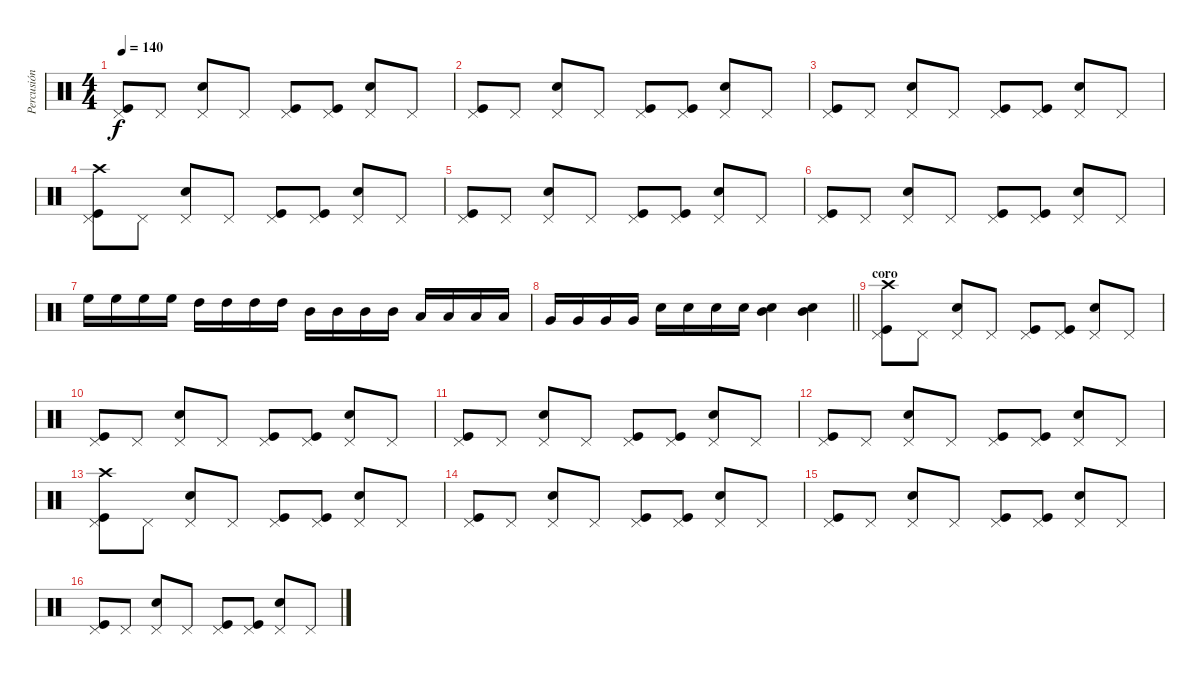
\track ("Percusión" "Percusión") {instrument percussion}
\staff {score}
\articulation defaults
\ts (4 4)
\tempo 140
\clef neutral
\ks c
("Kick (hit)" "Pedal Hi-Hat (hit)").8{dy f} "Pedal Hi-Hat (hit)".8 ("Snare (hit) 2" "Pedal Hi-Hat (hit)").8 "Pedal Hi-Hat (hit)".8 ("Kick (hit)" "Pedal Hi-Hat (hit)").8 ("Kick (hit)" "Pedal Hi-Hat (hit)").8 ("Snare (hit) 2" "Pedal Hi-Hat (hit)").8 "Pedal Hi-Hat (hit)".8 |
("Kick (hit)" "Pedal Hi-Hat (hit)").8 "Pedal Hi-Hat (hit)".8 ("Snare (hit) 2" "Pedal Hi-Hat (hit)").8 "Pedal Hi-Hat (hit)".8 ("Kick (hit)" "Pedal Hi-Hat (hit)").8 ("Kick (hit)" "Pedal Hi-Hat (hit)").8 ("Snare (hit) 2" "Pedal Hi-Hat (hit)").8 "Pedal Hi-Hat (hit)".8 |
("Kick (hit)" "Pedal Hi-Hat (hit)").8 "Pedal Hi-Hat (hit)".8 ("Snare (hit) 2" "Pedal Hi-Hat (hit)").8 "Pedal Hi-Hat (hit)".8 ("Kick (hit)" "Pedal Hi-Hat (hit)").8 ("Kick (hit)" "Pedal Hi-Hat (hit)").8 ("Snare (hit) 2" "Pedal Hi-Hat (hit)").8 "Pedal Hi-Hat (hit)".8 |
("Crash high (hit)" "Kick (hit)" "Pedal Hi-Hat (hit)").8 "Pedal Hi-Hat (hit)".8 ("Snare (hit) 2" "Pedal Hi-Hat (hit)").8 "Pedal Hi-Hat (hit)".8 ("Kick (hit)" "Pedal Hi-Hat (hit)").8 ("Kick (hit)" "Pedal Hi-Hat (hit)").8 ("Snare (hit) 2" "Pedal Hi-Hat (hit)").8 "Pedal Hi-Hat (hit)".8 |
("Kick (hit)" "Pedal Hi-Hat (hit)").8 "Pedal Hi-Hat (hit)".8 ("Snare (hit) 2" "Pedal Hi-Hat (hit)").8 "Pedal Hi-Hat (hit)".8 ("Kick (hit)" "Pedal Hi-Hat (hit)").8 ("Kick (hit)" "Pedal Hi-Hat (hit)").8 ("Snare (hit) 2" "Pedal Hi-Hat (hit)").8 "Pedal Hi-Hat (hit)".8 |
("Kick (hit)" "Pedal Hi-Hat (hit)").8 "Pedal Hi-Hat (hit)".8 ("Snare (hit) 2" "Pedal Hi-Hat (hit)").8 "Pedal Hi-Hat (hit)".8 ("Kick (hit)" "Pedal Hi-Hat (hit)").8 ("Kick (hit)" "Pedal Hi-Hat (hit)").8 ("Snare (hit) 2" "Pedal Hi-Hat (hit)").8 "Pedal Hi-Hat (hit)".8 |
"High Floor Tom (hit)".16 "High Floor Tom (hit)".16 "High Floor Tom (hit)".16 "High Floor Tom (hit)".16 "High Tom (hit)".16 "High Tom (hit)".16 "High Tom (hit)".16 "High Tom (hit)".16 "Mid Tom (hit)".16 "Mid Tom (hit)".16 "Mid Tom (hit)".16 "Mid Tom (hit)".16 "Low Tom (hit)".16 "Low Tom (hit)".16 "Low Tom (hit)".16 "Low Tom (hit)".16 |
\barLineRight lightlight "Very Low Tom (hit)".16 "Very Low Tom (hit)".16 "Very Low Tom (hit)".16 "Very Low Tom (hit)".16 "Snare (hit) 2".16 "Snare (hit) 2".16 "Snare (hit) 2".16 "Snare (hit) 2".16
("Snare (hit) 2" "Mid Tom (hit)").4 ("Mid Tom (hit)" "Snare (hit) 2").4 |
\section ("" "coro")
("Crash high (hit)" "Kick (hit)" "Pedal Hi-Hat (hit)").8 "Pedal Hi-Hat (hit)".8 ("Snare (hit) 2" "Pedal Hi-Hat (hit)").8 "Pedal Hi-Hat (hit)".8 ("Kick (hit)" "Pedal Hi-Hat (hit)").8 ("Kick (hit)" "Pedal Hi-Hat (hit)").8 ("Snare (hit) 2" "Pedal Hi-Hat (hit)").8 "Pedal Hi-Hat (hit)".8 |
("Kick (hit)" "Pedal Hi-Hat (hit)").8 "Pedal Hi-Hat (hit)".8 ("Snare (hit) 2" "Pedal Hi-Hat (hit)").8 "Pedal Hi-Hat (hit)".8 ("Kick (hit)" "Pedal Hi-Hat (hit)").8 ("Kick (hit)" "Pedal Hi-Hat (hit)").8 ("Snare (hit) 2" "Pedal Hi-Hat (hit)").8 "Pedal Hi-Hat (hit)".8 |
("Kick (hit)" "Pedal Hi-Hat (hit)").8 "Pedal Hi-Hat (hit)".8 ("Snare (hit) 2" "Pedal Hi-Hat (hit)").8 "Pedal Hi-Hat (hit)".8 ("Kick (hit)" "Pedal Hi-Hat (hit)").8 ("Kick (hit)" "Pedal Hi-Hat (hit)").8 ("Snare (hit) 2" "Pedal Hi-Hat (hit)").8 "Pedal Hi-Hat (hit)".8 |
("Kick (hit)" "Pedal Hi-Hat (hit)").8 "Pedal Hi-Hat (hit)".8 ("Snare (hit) 2" "Pedal Hi-Hat (hit)").8 "Pedal Hi-Hat (hit)".8 ("Kick (hit)" "Pedal Hi-Hat (hit)").8 ("Kick (hit)" "Pedal Hi-Hat (hit)").8 ("Snare (hit) 2" "Pedal Hi-Hat (hit)").8 "Pedal Hi-Hat (hit)".8 |
("Crash high (hit)" "Kick (hit)" "Pedal Hi-Hat (hit)").8 "Pedal Hi-Hat (hit)".8 ("Snare (hit) 2" "Pedal Hi-Hat (hit)").8 "Pedal Hi-Hat (hit)".8 ("Kick (hit)" "Pedal Hi-Hat (hit)").8 ("Kick (hit)" "Pedal Hi-Hat (hit)").8 ("Snare (hit) 2" "Pedal Hi-Hat (hit)").8 "Pedal Hi-Hat (hit)".8 |
("Kick (hit)" "Pedal Hi-Hat (hit)").8 "Pedal Hi-Hat (hit)".8 ("Snare (hit) 2" "Pedal Hi-Hat (hit)").8 "Pedal Hi-Hat (hit)".8 ("Kick (hit)" "Pedal Hi-Hat (hit)").8 ("Kick (hit)" "Pedal Hi-Hat (hit)").8 ("Snare (hit) 2" "Pedal Hi-Hat (hit)").8 "Pedal Hi-Hat (hit)".8 |
("Kick (hit)" "Pedal Hi-Hat (hit)").8 "Pedal Hi-Hat (hit)".8 ("Snare (hit) 2" "Pedal Hi-Hat (hit)").8 "Pedal Hi-Hat (hit)".8 ("Kick (hit)" "Pedal Hi-Hat (hit)").8 ("Kick (hit)" "Pedal Hi-Hat (hit)").8 ("Snare (hit) 2" "Pedal Hi-Hat (hit)").8 "Pedal Hi-Hat (hit)".8 |
("Kick (hit)" "Pedal Hi-Hat (hit)").8 "Pedal Hi-Hat (hit)".8 ("Snare (hit) 2" "Pedal Hi-Hat (hit)").8 "Pedal Hi-Hat (hit)".8 ("Kick (hit)" "Pedal Hi-Hat (hit)").8 ("Kick (hit)" "Pedal Hi-Hat (hit)").8 ("Snare (hit) 2" "Pedal Hi-Hat (hit)").8 "Pedal Hi-Hat (hit)".8
